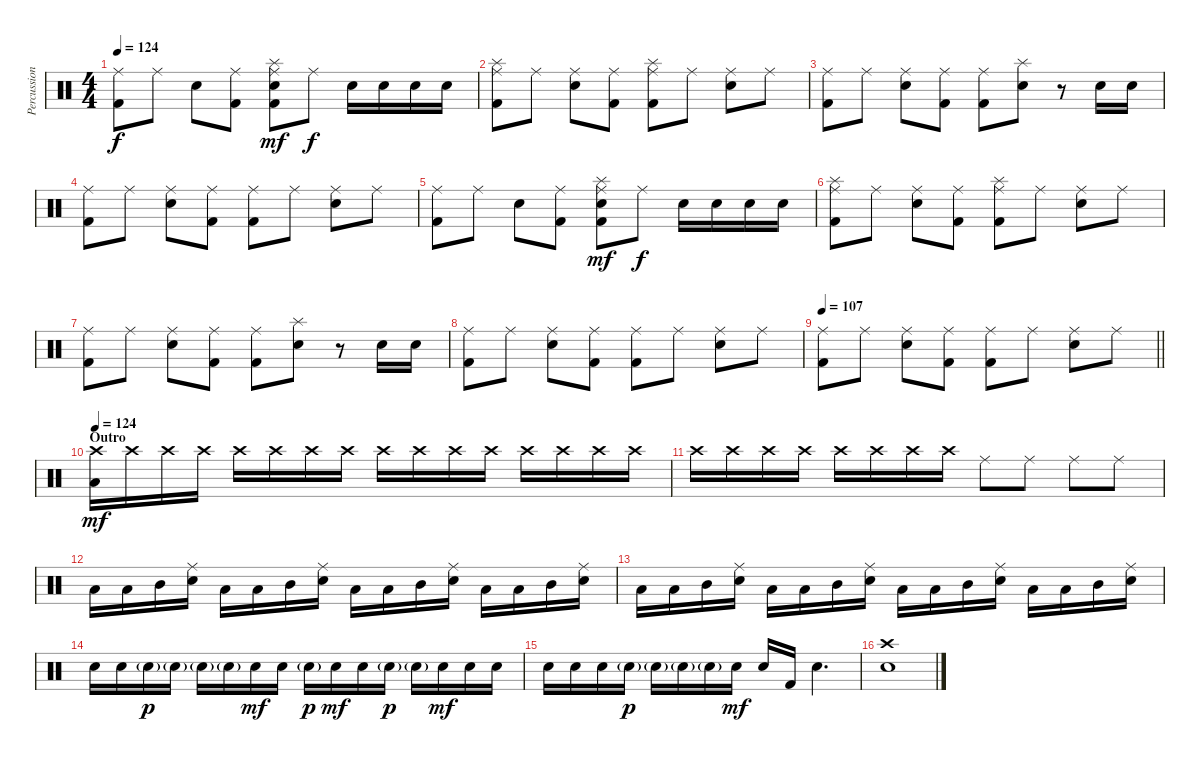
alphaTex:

\track ("Percussioni" "Percussion") {instrument percussion}
\staff {score}
\articulation defaults
\ts (4 4)
\tempo 124
\clef neutral
\ks c
("Ride (middle)" "Kick (hit) 2").8{dy f} "Ride (middle)".8 "Snare (hit) 2".8 ("Ride (middle)" "Kick (hit) 2").8 ("Ride (middle)" "Splash (hit)" "Snare (hit) 2" "Kick (hit) 2").8{dy mf} "Ride (middle)".8{dy f} "Snare (hit) 2".16 "Snare (hit) 2".16 "Snare (hit) 2".16 "Snare (hit) 2".16 |
("Ride (middle)" "Splash (hit)" "Kick (hit) 2").8 "Ride (middle)".8 ("Ride (middle)" "Snare (hit) 2").8 ("Ride (middle)" "Kick (hit) 2").8 ("Ride (middle)" "Splash (hit)" "Kick (hit) 2").8 "Ride (middle)".8 ("Ride (middle)" "Snare (hit) 2").8 "Ride (middle)".8 |
("Ride (middle)" "Kick (hit) 2").8 "Ride (middle)".8 ("Ride (middle)" "Snare (hit) 2").8 ("Ride (middle)" "Kick (hit) 2").8 ("Ride (middle)" "Kick (hit) 2").8 ("Splash (hit)" "Snare (hit) 2").8 r.8 "Snare (hit) 2".16 "Snare (hit) 2".16 |
("Ride (middle)" "Kick (hit) 2").8 "Ride (middle)".8 ("Ride (middle)" "Snare (hit) 2").8 ("Ride (middle)" "Kick (hit) 2").8 ("Ride (middle)" "Kick (hit) 2").8 "Ride (middle)".8 ("Ride (middle)" "Snare (hit) 2").8 "Ride (middle)".8 |
("Ride (middle)" "Kick (hit) 2").8 "Ride (middle)".8 "Snare (hit) 2".8 ("Ride (middle)" "Kick (hit) 2").8 ("Ride (middle)" "Splash (hit)" "Snare (hit) 2" "Kick (hit) 2").8{dy mf} "Ride (middle)".8{dy f} "Snare (hit) 2".16 "Snare (hit) 2".16 "Snare (hit) 2".16 "Snare (hit) 2".16 |
("Ride (middle)" "Splash (hit)" "Kick (hit) 2").8 "Ride (middle)".8 ("Ride (middle)" "Snare (hit) 2").8 ("Ride (middle)" "Kick (hit) 2").8 ("Ride (middle)" "Splash (hit)" "Kick (hit) 2").8 "Ride (middle)".8 ("Ride (middle)" "Snare (hit) 2").8 "Ride (middle)".8 |
("Ride (middle)" "Kick (hit) 2").8 "Ride (middle)".8 ("Ride (middle)" "Snare (hit) 2").8 ("Ride (middle)" "Kick (hit) 2").8 ("Ride (middle)" "Kick (hit) 2").8 ("Splash (hit)" "Snare (hit) 2").8 r.8 "Snare (hit) 2".16 "Snare (hit) 2".16 |
("Ride (middle)" "Kick (hit) 2").8 "Ride (middle)".8 ("Ride (middle)" "Snare (hit) 2").8 ("Ride (middle)" "Kick (hit) 2").8 ("Ride (middle)" "Kick (hit) 2").8 "Ride (middle)".8 ("Ride (middle)" "Snare (hit) 2").8 "Ride (middle)".8 |
\tempo 107
\barLineRight lightlight
("Ride (middle)" "Kick (hit) 2").8 "Ride (middle)".8 ("Ride (middle)" "Snare (hit) 2").8 ("Ride (middle)" "Kick (hit) 2").8 ("Ride (middle)" "Kick (hit) 2").8 "Ride (middle)".8 ("Ride (middle)" "Snare (hit) 2").8 "Ride (middle)".8 |
\section ("" "Outro")
\tempo 124
("Crash high (hit)" "Low Floor Tom (hit)").16{dy mf} "Crash high (hit)".16 "Crash high (hit)".16 "Crash high (hit)".16 "Crash high (hit)".16 "Crash high (hit)".16 "Crash high (hit)".16 "Crash high (hit)".16 "Crash high (hit)".16 "Crash high (hit)".16 "Crash high (hit)".16 "Crash high (hit)".16 "Crash high (hit)".16 "Crash high (hit)".16 "Crash high (hit)".16 "Crash high (hit)".16 |
"Crash high (hit)".16 "Crash high (hit)".16 "Crash high (hit)".16 "Crash high (hit)".16 "Crash high (hit)".16 "Crash high (hit)".16 "Crash high (hit)".16 "Crash high (hit)".16 "Ride (middle)".8 "Ride (middle)".8 "Ride (middle)".8 "Ride (middle)".8 |
"Low Floor Tom (hit)".16 "Low Tom (hit)".16 "Mid Tom (hit)".16 ("Ride (middle)" "Snare (hit) 2").16 "Low Floor Tom (hit)".16 "Low Tom (hit)".16 "Mid Tom (hit)".16 ("Ride (middle)" "Snare (hit) 2").16 "Low Floor Tom (hit)".16 "Low Tom (hit)".16 "Mid Tom (hit)".16 ("Ride (middle)" "Snare (hit) 2").16 "Low Floor Tom (hit)".16 "Low Tom (hit)".16 "Mid Tom (hit)".16 ("Ride (middle)" "Snare (hit) 2").16 |
"Low Floor Tom (hit)".16 "Low Tom (hit)".16 "Mid Tom (hit)".16 ("Ride (middle)" "Snare (hit) 2").16 "Low Floor Tom (hit)".16 "Low Tom (hit)".16 "Mid Tom (hit)".16 ("Ride (middle)" "Snare (hit) 2").16 "Low Floor Tom (hit)".16 "Low Tom (hit)".16 "Mid Tom (hit)".16 ("Ride (middle)" "Snare (hit) 2").16 "Low Floor Tom (hit)".16 "Low Tom (hit)".16 "Mid Tom (hit)".16 ("Ride (middle)" "Snare (hit) 2").16 |
"Snare (hit) 2".16 "Snare (hit) 2".16 "Snare (hit) 2"{g}.16{dy p} "Snare (hit) 2"{g}.16 "Snare (hit) 2"{g}.16 "Snare (hit) 2"{g}.16 "Snare (hit) 2".16{dy mf} "Snare (hit) 2".16 "Snare (hit) 2"{g}.16{dy p} "Snare (hit) 2".16{dy mf} "Snare (hit) 2".16 "Snare (hit) 2"{g}.16{dy p} "Snare (hit) 2"{g}.16 "Snare (hit) 2".16{dy mf} "Snare (hit) 2".16 "Snare (hit) 2".16 |
"Snare (hit) 2".16 "Snare (hit) 2".16 "Snare (hit) 2".16 "Snare (hit) 2"{g}.16{dy p} "Snare (hit) 2"{g}.16 "Snare (hit) 2"{g}.16 "Snare (hit) 2"{g}.16 "Snare (hit) 2".16{dy mf} "Snare (hit) 2".16 "Kick (hit) 2".16 "Snare (hit) 2".4{d} |
("Crash high (hit)" "Snare (hit) 2").1
